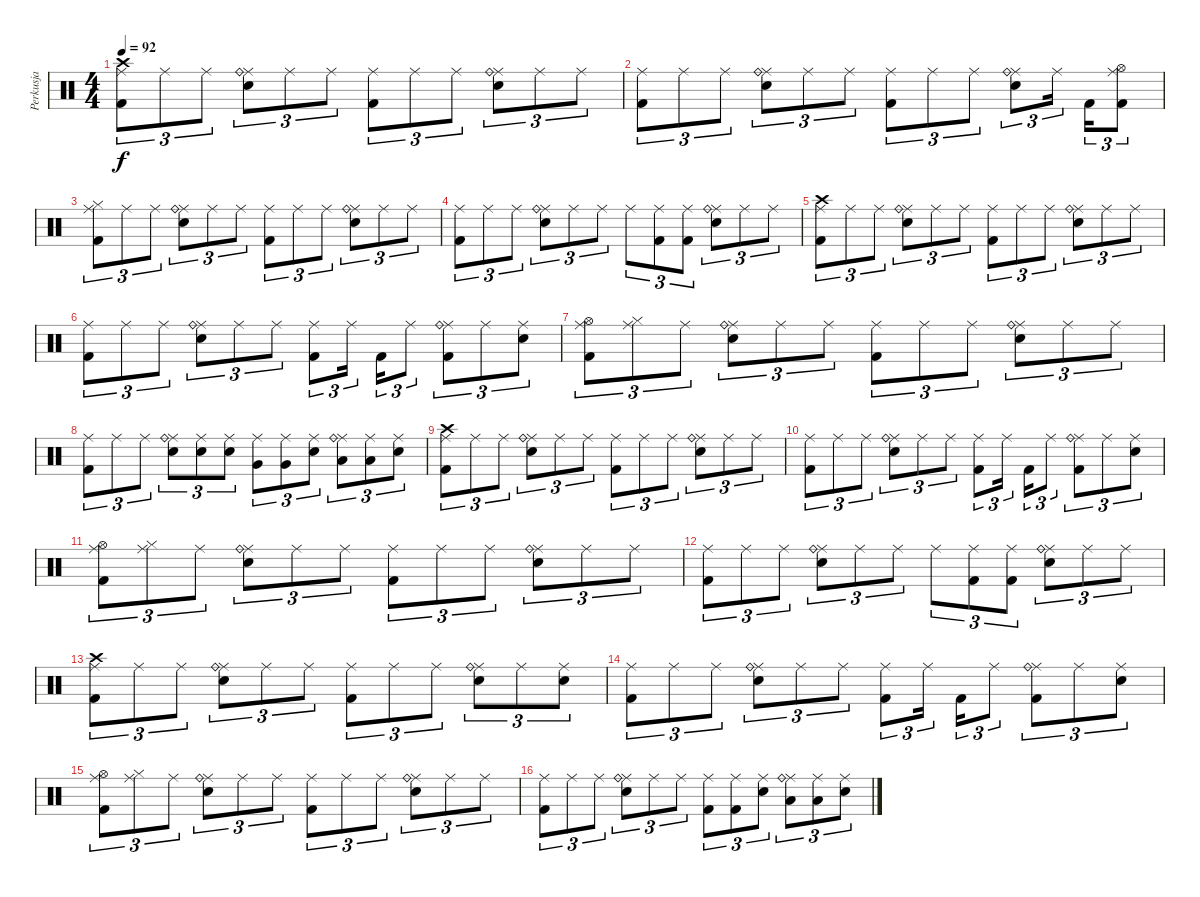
\track ("Perkusja" "Perkusja") {instrument percussion}
\staff {score}
\articulation defaults
\ts (4 4)
\tempo 92
\clef neutral
\ks c
("Ride (middle)" "Crash high (hit)" "Kick (hit) 2").8{tu (3 2) dy f} "Ride (middle)".8{tu (3 2)} "Ride (middle)".8{tu (3 2)} ("Ride (middle)" "Ride (bell)" "Electric Snare (hit)").8{tu (3 2)} "Ride (middle)".8{tu (3 2)} "Ride (middle)".8{tu (3 2)} ("Ride (middle)" "Kick (hit) 2").8{tu (3 2)} "Ride (middle)".8{tu (3 2)} "Ride (middle)".8{tu (3 2)} ("Ride (middle)" "Ride (bell)" "Electric Snare (hit)").8{tu (3 2)} "Ride (middle)".8{tu (3 2)} "Ride (middle)".8{tu (3 2)} |
("Ride (middle)" "Kick (hit) 2").8{tu (3 2)} "Ride (middle)".8{tu (3 2)} "Ride (middle)".8{tu (3 2)} ("Ride (middle)" "Ride (bell)" "Electric Snare (hit)").8{tu (3 2)} "Ride (middle)".8{tu (3 2)} "Ride (middle)".8{tu (3 2)} ("Ride (middle)" "Kick (hit) 2").8{tu (3 2)} "Ride (middle)".8{tu (3 2)} "Ride (middle)".8{tu (3 2)} ("Ride (middle)" "Ride (bell)" "Electric Snare (hit)").8{tu (3 2)} "Ride (middle)".16{tu (3 2)} "Kick (hit) 2".16{tu (3 2)} ("Ride (middle)" "Hi-Hat (open)" "Kick (hit) 2").8{tu (3 2)} |
("Ride (middle)" "Hi-Hat (closed)" "Kick (hit) 2").8{tu (3 2)} "Ride (middle)".8{tu (3 2)} "Ride (middle)".8{tu (3 2)} ("Ride (middle)" "Ride (bell)" "Electric Snare (hit)").8{tu (3 2)} "Ride (middle)".8{tu (3 2)} "Ride (middle)".8{tu (3 2)} ("Ride (middle)" "Kick (hit) 2").8{tu (3 2)} "Ride (middle)".8{tu (3 2)} "Ride (middle)".8{tu (3 2)} ("Ride (middle)" "Ride (bell)" "Electric Snare (hit)").8{tu (3 2)} "Ride (middle)".8{tu (3 2)} "Ride (middle)".8{tu (3 2)} |
("Ride (middle)" "Kick (hit) 2").8{tu (3 2)} "Ride (middle)".8{tu (3 2)} "Ride (middle)".8{tu (3 2)} ("Ride (middle)" "Ride (bell)" "Electric Snare (hit)").8{tu (3 2)} "Ride (middle)".8{tu (3 2)} "Ride (middle)".8{tu (3 2)} "Ride (middle)".8{tu (3 2)} ("Ride (middle)" "Kick (hit) 2").8{tu (3 2)} ("Ride (middle)" "Kick (hit) 2").8{tu (3 2)} ("Ride (middle)" "Ride (bell)" "Electric Snare (hit)").8{tu (3 2)} "Ride (middle)".8{tu (3 2)} "Ride (middle)".8{tu (3 2)} |
("Ride (middle)" "Crash high (hit)" "Kick (hit) 2").8{tu (3 2)} "Ride (middle)".8{tu (3 2)} "Ride (middle)".8{tu (3 2)} ("Ride (middle)" "Ride (bell)" "Electric Snare (hit)").8{tu (3 2)} "Ride (middle)".8{tu (3 2)} "Ride (middle)".8{tu (3 2)} ("Ride (middle)" "Kick (hit) 2").8{tu (3 2)} "Ride (middle)".8{tu (3 2)} "Ride (middle)".8{tu (3 2)} ("Ride (middle)" "Ride (bell)" "Electric Snare (hit)").8{tu (3 2)} "Ride (middle)".8{tu (3 2)} "Ride (middle)".8{tu (3 2)} |
("Ride (middle)" "Kick (hit) 2").8{tu (3 2)} "Ride (middle)".8{tu (3 2)} "Ride (middle)".8{tu (3 2)} ("Ride (middle)" "Ride (bell)" "Electric Snare (hit)").8{tu (3 2)} "Ride (middle)".8{tu (3 2)} "Ride (middle)".8{tu (3 2)} ("Ride (middle)" "Kick (hit) 2").8{tu (3 2)} "Ride (middle)".16{tu (3 2)} "Kick (hit) 2".16{tu (3 2)} "Ride (middle)".8{tu (3 2)} ("Ride (middle)" "Ride (bell)" "Kick (hit) 2").8{tu (3 2)} "Ride (middle)".8{tu (3 2)} ("Ride (middle)" "Electric Snare (hit)").8{tu (3 2)} |
("Ride (middle)" "Hi-Hat (open)" "Kick (hit) 2").8{tu (3 2)} ("Ride (middle)" "Hi-Hat (closed)").8{tu (3 2)} "Ride (middle)".8{tu (3 2)} ("Ride (middle)" "Ride (bell)" "Electric Snare (hit)").8{tu (3 2)} "Ride (middle)".8{tu (3 2)} "Ride (middle)".8{tu (3 2)} ("Ride (middle)" "Kick (hit) 2").8{tu (3 2)} "Ride (middle)".8{tu (3 2)} "Ride (middle)".8{tu (3 2)} ("Ride (middle)" "Ride (bell)" "Electric Snare (hit)").8{tu (3 2)} "Ride (middle)".8{tu (3 2)} "Ride (middle)".8{tu (3 2)} |
("Ride (middle)" "Kick (hit) 2").8{tu (3 2)} "Ride (middle)".8{tu (3 2)} "Ride (middle)".8{tu (3 2)} ("Ride (middle)" "Ride (bell)" "Electric Snare (hit)").8{tu (3 2)} ("Ride (middle)" "Snare (hit) 2").8{tu (3 2)} ("Ride (middle)" "Snare (hit) 2").8{tu (3 2)} ("Ride (middle)" "Very Low Tom (hit)").8{tu (3 2)} ("Ride (middle)" "Very Low Tom (hit)").8{tu (3 2)} ("Ride (middle)" "Electric Snare (hit)").8{tu (3 2)} ("Ride (middle)" "Ride (bell)" "Low Floor Tom (hit)").8{tu (3 2)} ("Ride (middle)" "Low Floor Tom (hit)").8{tu (3 2)} ("Ride (middle)" "Snare (hit) 2").8{tu (3 2)} |
("Ride (middle)" "Crash high (hit)" "Kick (hit) 2").8{tu (3 2)} "Ride (middle)".8{tu (3 2)} "Ride (middle)".8{tu (3 2)} ("Ride (middle)" "Ride (bell)" "Electric Snare (hit)").8{tu (3 2)} "Ride (middle)".8{tu (3 2)} "Ride (middle)".8{tu (3 2)} ("Ride (middle)" "Kick (hit) 2").8{tu (3 2)} "Ride (middle)".8{tu (3 2)} "Ride (middle)".8{tu (3 2)} ("Ride (middle)" "Ride (bell)" "Electric Snare (hit)").8{tu (3 2)} "Ride (middle)".8{tu (3 2)} "Ride (middle)".8{tu (3 2)} |
("Ride (middle)" "Kick (hit) 2").8{tu (3 2)} "Ride (middle)".8{tu (3 2)} "Ride (middle)".8{tu (3 2)} ("Ride (middle)" "Ride (bell)" "Electric Snare (hit)").8{tu (3 2)} "Ride (middle)".8{tu (3 2)} "Ride (middle)".8{tu (3 2)} ("Ride (middle)" "Kick (hit) 2").8{tu (3 2)} "Ride (middle)".16{tu (3 2)} "Kick (hit) 2".16{tu (3 2)} "Ride (middle)".8{tu (3 2)} ("Ride (middle)" "Ride (bell)" "Kick (hit) 2").8{tu (3 2)} "Ride (middle)".8{tu (3 2)} ("Ride (middle)" "Electric Snare (hit)").8{tu (3 2)} |
("Ride (middle)" "Hi-Hat (open)" "Kick (hit) 2").8{tu (3 2)} ("Ride (middle)" "Hi-Hat (closed)").8{tu (3 2)} "Ride (middle)".8{tu (3 2)} ("Ride (middle)" "Ride (bell)" "Electric Snare (hit)").8{tu (3 2)} "Ride (middle)".8{tu (3 2)} "Ride (middle)".8{tu (3 2)} ("Ride (middle)" "Kick (hit) 2").8{tu (3 2)} "Ride (middle)".8{tu (3 2)} "Ride (middle)".8{tu (3 2)} ("Ride (middle)" "Ride (bell)" "Electric Snare (hit)").8{tu (3 2)} "Ride (middle)".8{tu (3 2)} "Ride (middle)".8{tu (3 2)} |
("Ride (middle)" "Kick (hit) 2").8{tu (3 2)} "Ride (middle)".8{tu (3 2)} "Ride (middle)".8{tu (3 2)} ("Ride (middle)" "Ride (bell)" "Electric Snare (hit)").8{tu (3 2)} "Ride (middle)".8{tu (3 2)} "Ride (middle)".8{tu (3 2)} "Ride (middle)".8{tu (3 2)} ("Ride (middle)" "Kick (hit) 2").8{tu (3 2)} ("Ride (middle)" "Kick (hit) 2").8{tu (3 2)} ("Ride (middle)" "Ride (bell)" "Electric Snare (hit)").8{tu (3 2)} "Ride (middle)".8{tu (3 2)} "Ride (middle)".8{tu (3 2)} |
("Ride (middle)" "Crash high (hit)" "Kick (hit) 2").8{tu (3 2)} "Ride (middle)".8{tu (3 2)} "Ride (middle)".8{tu (3 2)} ("Ride (middle)" "Ride (bell)" "Electric Snare (hit)").8{tu (3 2)} "Ride (middle)".8{tu (3 2)} "Ride (middle)".8{tu (3 2)} ("Ride (middle)" "Kick (hit) 2").8{tu (3 2)} "Ride (middle)".8{tu (3 2)} "Ride (middle)".8{tu (3 2)} ("Ride (middle)" "Ride (bell)" "Electric Snare (hit)").8{tu (3 2)} "Ride (middle)".8{tu (3 2)} ("Ride (middle)" "Electric Snare (hit)").8{tu (3 2)} |
("Ride (middle)" "Kick (hit) 2").8{tu (3 2)} "Ride (middle)".8{tu (3 2)} "Ride (middle)".8{tu (3 2)} ("Ride (middle)" "Ride (bell)" "Electric Snare (hit)").8{tu (3 2)} "Ride (middle)".8{tu (3 2)} "Ride (middle)".8{tu (3 2)} ("Ride (middle)" "Kick (hit) 2").8{tu (3 2)} "Ride (middle)".16{tu (3 2)} "Kick (hit) 2".16{tu (3 2)} "Ride (middle)".8{tu (3 2)} ("Ride (middle)" "Ride (bell)" "Kick (hit) 2").8{tu (3 2)} "Ride (middle)".8{tu (3 2)} ("Ride (middle)" "Electric Snare (hit)").8{tu (3 2)} |
("Ride (middle)" "Hi-Hat (open)" "Kick (hit) 2").8{tu (3 2)} ("Ride (middle)" "Hi-Hat (closed)").8{tu (3 2)} "Ride (middle)".8{tu (3 2)} ("Ride (middle)" "Ride (bell)" "Electric Snare (hit)").8{tu (3 2)} "Ride (middle)".8{tu (3 2)} "Ride (middle)".8{tu (3 2)} ("Ride (middle)" "Kick (hit) 2").8{tu (3 2)} "Ride (middle)".8{tu (3 2)} "Ride (middle)".8{tu (3 2)} ("Ride (middle)" "Ride (bell)" "Electric Snare (hit)").8{tu (3 2)} "Ride (middle)".8{tu (3 2)} "Ride (middle)".8{tu (3 2)} |
("Ride (middle)" "Kick (hit) 2").8{tu (3 2)} "Ride (middle)".8{tu (3 2)} "Ride (middle)".8{tu (3 2)} ("Ride (middle)" "Ride (bell)" "Electric Snare (hit)").8{tu (3 2)} "Ride (middle)".8{tu (3 2)} "Ride (middle)".8{tu (3 2)} ("Ride (middle)" "Kick (hit) 2").8{tu (3 2)} ("Ride (middle)" "Kick (hit) 2").8{tu (3 2)} ("Ride (middle)" "Electric Snare (hit)").8{tu (3 2)} ("Ride (middle)" "Ride (bell)" "Low Floor Tom (hit)").8{tu (3 2)} ("Ride (middle)" "Low Floor Tom (hit)").8{tu (3 2)} ("Ride (middle)" "Snare (hit) 2").8{tu (3 2)}
